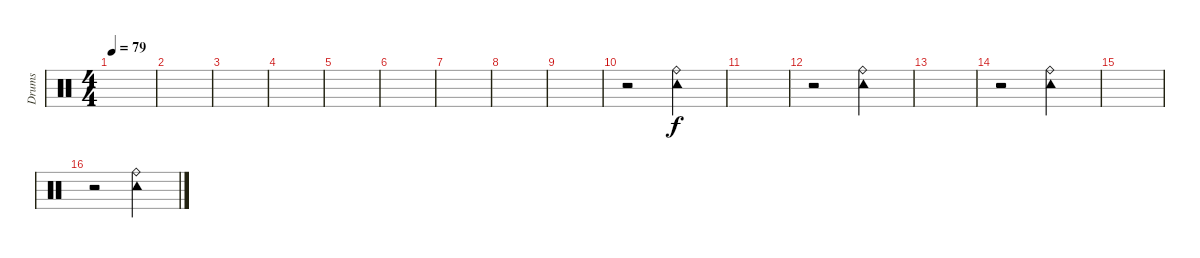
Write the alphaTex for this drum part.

\track ("Drums" "Drums") {instrument percussion}
\staff {score}
\articulation defaults
\ts (4 4)
\tempo 79
\clef neutral
\ks c
|
|
|
|
|
|
|
|
|
r.2 ("Tambourine (hit)" "Ride (bell)").2 |
|
r.2 ("Tambourine (hit)" "Ride (bell)").2 |
|
r.2 ("Tambourine (hit)" "Ride (bell)").2 |
|
r.2 ("Tambourine (hit)" "Ride (bell)").2
